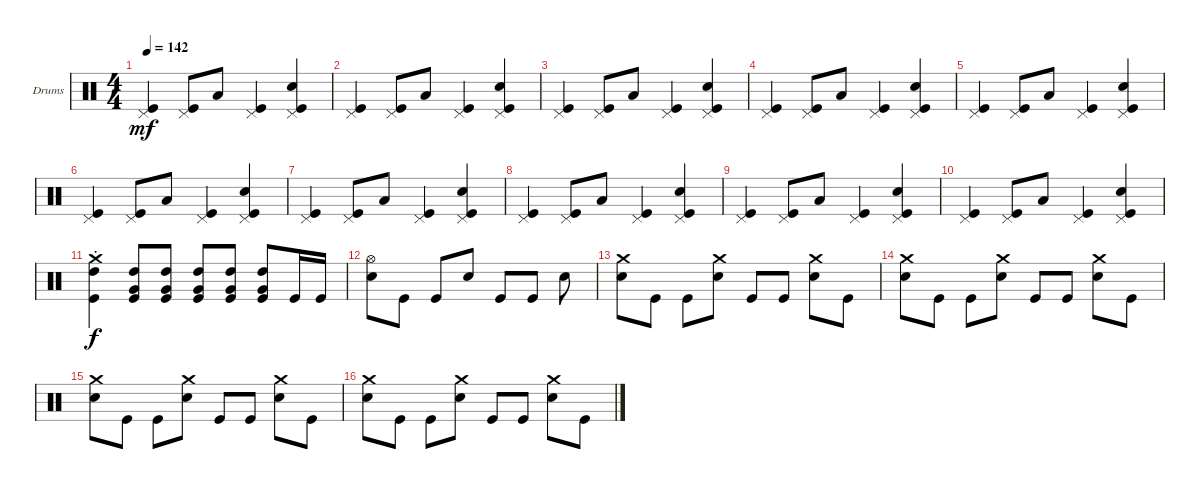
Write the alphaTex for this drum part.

\defaultSystemsLayout 4
\bracketExtendMode groupsimilarinstruments
\firstSystemTrackNameOrientation horizontal
\otherSystemsTrackNameOrientation horizontal
\track ("Drumkit" "Drums") {instrument percussion}
\staff {score}
\articulation defaults
\ts (4 4)
\tempo 142
\clef neutral
\scale
0.333333
\ks c
("Kick (hit)" "Pedal Hi-Hat (hit)").4{dy mf} ("Pedal Hi-Hat (hit)" "Kick (hit)").8 "Low Tom (hit)".8 ("Kick (hit)" "Pedal Hi-Hat (hit)").4 ("Snare (hit) 2" "Kick (hit)" "Pedal Hi-Hat (hit)").4 |
\scale
0.333333 ("Kick (hit)" "Pedal Hi-Hat (hit)").4 ("Pedal Hi-Hat (hit)" "Kick (hit)").8 "Low Tom (hit)".8 ("Kick (hit)" "Pedal Hi-Hat (hit)").4 ("Snare (hit) 2" "Kick (hit)" "Pedal Hi-Hat (hit)").4 |
\scale
0.333333 ("Kick (hit)" "Pedal Hi-Hat (hit)").4 ("Pedal Hi-Hat (hit)" "Kick (hit)").8 "Low Tom (hit)".8 ("Kick (hit)" "Pedal Hi-Hat (hit)").4 ("Snare (hit) 2" "Kick (hit)" "Pedal Hi-Hat (hit)").4 |
\scale
0.333333 ("Kick (hit)" "Pedal Hi-Hat (hit)").4 ("Pedal Hi-Hat (hit)" "Kick (hit)").8 "Low Tom (hit)".8 ("Kick (hit)" "Pedal Hi-Hat (hit)").4 ("Snare (hit) 2" "Kick (hit)" "Pedal Hi-Hat (hit)").4 |
\scale
0.333333 ("Kick (hit)" "Pedal Hi-Hat (hit)").4 ("Pedal Hi-Hat (hit)" "Kick (hit)").8 "Low Tom (hit)".8 ("Kick (hit)" "Pedal Hi-Hat (hit)").4 ("Snare (hit) 2" "Kick (hit)" "Pedal Hi-Hat (hit)").4 |
\scale
0.333333 ("Kick (hit)" "Pedal Hi-Hat (hit)").4 ("Pedal Hi-Hat (hit)" "Kick (hit)").8 "Low Tom (hit)".8 ("Kick (hit)" "Pedal Hi-Hat (hit)").4 ("Snare (hit) 2" "Kick (hit)" "Pedal Hi-Hat (hit)").4 |
\scale
0.333333 ("Kick (hit)" "Pedal Hi-Hat (hit)").4 ("Pedal Hi-Hat (hit)" "Kick (hit)").8 "Low Tom (hit)".8 ("Kick (hit)" "Pedal Hi-Hat (hit)").4 ("Snare (hit) 2" "Kick (hit)" "Pedal Hi-Hat (hit)").4 |
\scale
0.333333 ("Kick (hit)" "Pedal Hi-Hat (hit)").4 ("Pedal Hi-Hat (hit)" "Kick (hit)").8 "Low Tom (hit)".8 ("Kick (hit)" "Pedal Hi-Hat (hit)").4 ("Snare (hit) 2" "Kick (hit)" "Pedal Hi-Hat (hit)").4 |
\scale
0.333333 ("Kick (hit)" "Pedal Hi-Hat (hit)").4 ("Pedal Hi-Hat (hit)" "Kick (hit)").8 "Low Tom (hit)".8 ("Kick (hit)" "Pedal Hi-Hat (hit)").4 ("Snare (hit) 2" "Kick (hit)" "Pedal Hi-Hat (hit)").4 |
\scale
0.333333 ("Kick (hit)" "Pedal Hi-Hat (hit)").4 ("Pedal Hi-Hat (hit)" "Kick (hit)").8 "Low Tom (hit)".8 ("Kick (hit)" "Pedal Hi-Hat (hit)").4 ("Snare (hit) 2" "Kick (hit)" "Pedal Hi-Hat (hit)").4 |
\scale
0.333333 ("Kick (hit)"{st} "High Tom (hit)"{st} "Crash medium (hit)"{st}).4{dy f} ("Very Low Tom (hit)" "Kick (hit)" "High Tom (hit)").8 ("Very Low Tom (hit)" "Kick (hit)" "High Tom (hit)").8 ("Very Low Tom (hit)" "Kick (hit)" "High Tom (hit)").8 ("Very Low Tom (hit)" "Kick (hit)" "High Tom (hit)").8 ("Very Low Tom (hit)" "Kick (hit)" "High Tom (hit)").8 "Kick (hit)".16 "Kick (hit)".16 |
("Hi-Hat (open)" "Snare (hit) 2").8 "Kick (hit)".8 "Kick (hit)".8 "Snare (hit) 2".8 "Kick (hit)".8 "Kick (hit)".8 "Snare (hit) 2".8 |
\scale
0.333333 ("Snare (hit) 2" "Crash medium (hit)").8 "Kick (hit)".8 "Kick (hit)".8 ("Snare (hit) 2" "Crash medium (hit)").8 "Kick (hit)".8 "Kick (hit)".8 ("Snare (hit) 2" "Crash medium (hit)").8 "Kick (hit)".8 |
\scale
0.333333 ("Snare (hit) 2" "Crash medium (hit)").8 "Kick (hit)".8 "Kick (hit)".8 ("Snare (hit) 2" "Crash medium (hit)").8 "Kick (hit)".8 "Kick (hit)".8 ("Snare (hit) 2" "Crash medium (hit)").8 "Kick (hit)".8 |
\scale
0.333333 ("Snare (hit) 2" "Crash medium (hit)").8 "Kick (hit)".8 "Kick (hit)".8 ("Snare (hit) 2" "Crash medium (hit)").8 "Kick (hit)".8 "Kick (hit)".8 ("Snare (hit) 2" "Crash medium (hit)").8 "Kick (hit)".8 |
\scale
0.333333 ("Snare (hit) 2" "Crash medium (hit)").8 "Kick (hit)".8 "Kick (hit)".8 ("Snare (hit) 2" "Crash medium (hit)").8 "Kick (hit)".8 "Kick (hit)".8 ("Snare (hit) 2" "Crash medium (hit)").8 "Kick (hit)".8
